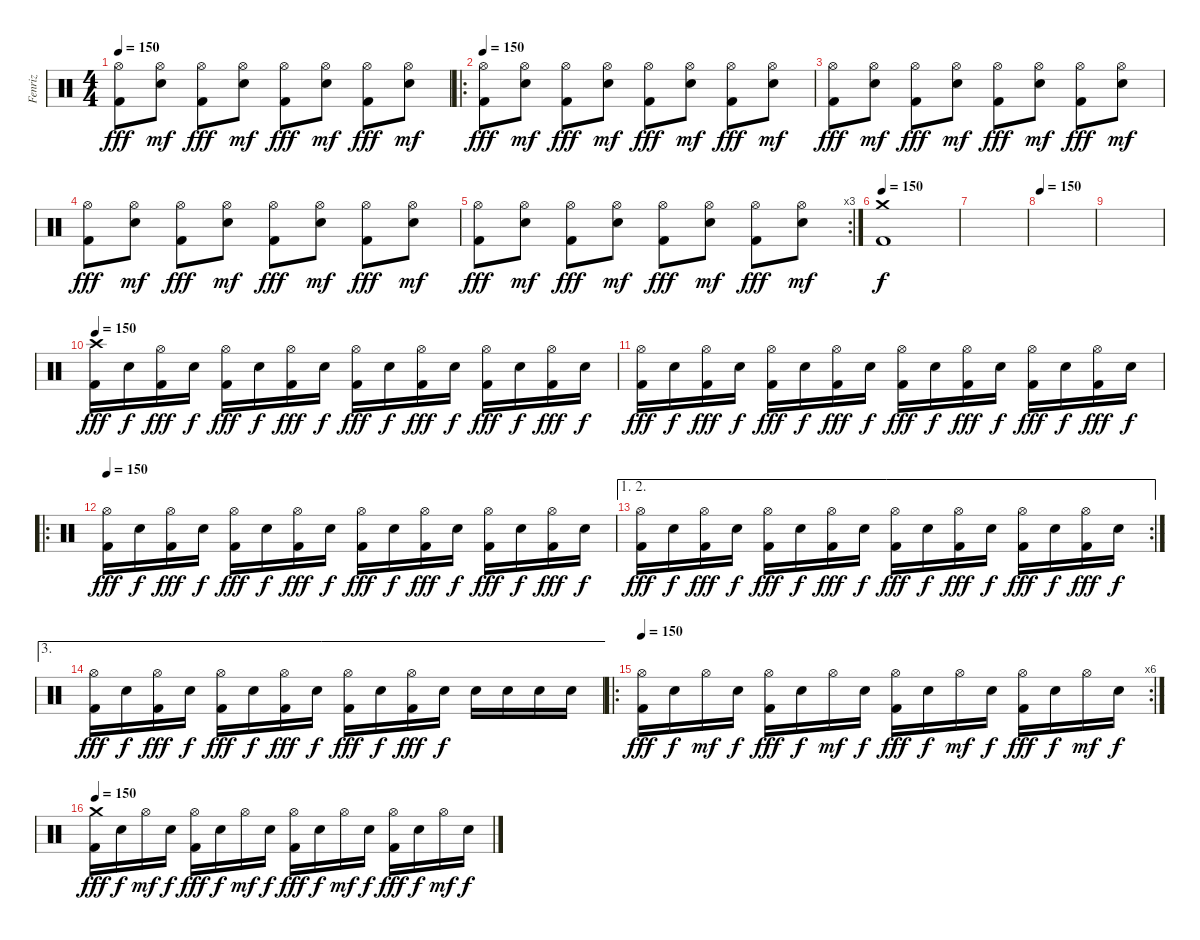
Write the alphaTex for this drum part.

\track ("Fenriz" "Fenriz") {instrument percussion}
\staff {score}
\articulation defaults
\ts (4 4)
\tempo 150
\clef neutral
\ks c
("Hi-Hat (open)" "Kick (hit) 2").8{dy fff} ("Hi-Hat (open)" "Electric Snare (hit)").8{dy mf} ("Hi-Hat (open)" "Kick (hit) 2").8{dy fff} ("Hi-Hat (open)" "Electric Snare (hit)").8{dy mf} ("Hi-Hat (open)" "Kick (hit) 2").8{dy fff} ("Hi-Hat (open)" "Electric Snare (hit)").8{dy mf} ("Hi-Hat (open)" "Kick (hit) 2").8{dy fff} ("Hi-Hat (open)" "Electric Snare (hit)").8{dy mf} |
\ro
\tempo 150
("Hi-Hat (open)" "Kick (hit) 2").8{dy fff} ("Hi-Hat (open)" "Electric Snare (hit)").8{dy mf} ("Hi-Hat (open)" "Kick (hit) 2").8{dy fff} ("Hi-Hat (open)" "Electric Snare (hit)").8{dy mf} ("Hi-Hat (open)" "Kick (hit) 2").8{dy fff} ("Hi-Hat (open)" "Electric Snare (hit)").8{dy mf} ("Hi-Hat (open)" "Kick (hit) 2").8{dy fff} ("Hi-Hat (open)" "Electric Snare (hit)").8{dy mf} |
("Hi-Hat (open)" "Kick (hit) 2").8{dy fff} ("Hi-Hat (open)" "Electric Snare (hit)").8{dy mf} ("Hi-Hat (open)" "Kick (hit) 2").8{dy fff} ("Hi-Hat (open)" "Electric Snare (hit)").8{dy mf} ("Hi-Hat (open)" "Kick (hit) 2").8{dy fff} ("Hi-Hat (open)" "Electric Snare (hit)").8{dy mf} ("Hi-Hat (open)" "Kick (hit) 2").8{dy fff} ("Hi-Hat (open)" "Electric Snare (hit)").8{dy mf} |
("Hi-Hat (open)" "Kick (hit) 2").8{dy fff} ("Hi-Hat (open)" "Electric Snare (hit)").8{dy mf} ("Hi-Hat (open)" "Kick (hit) 2").8{dy fff} ("Hi-Hat (open)" "Electric Snare (hit)").8{dy mf} ("Hi-Hat (open)" "Kick (hit) 2").8{dy fff} ("Hi-Hat (open)" "Electric Snare (hit)").8{dy mf} ("Hi-Hat (open)" "Kick (hit) 2").8{dy fff} ("Hi-Hat (open)" "Electric Snare (hit)").8{dy mf} |
\rc 3
("Hi-Hat (open)" "Kick (hit) 2").8{dy fff} ("Hi-Hat (open)" "Electric Snare (hit)").8{dy mf} ("Hi-Hat (open)" "Kick (hit) 2").8{dy fff} ("Hi-Hat (open)" "Electric Snare (hit)").8{dy mf} ("Hi-Hat (open)" "Kick (hit) 2").8{dy fff} ("Hi-Hat (open)" "Electric Snare (hit)").8{dy mf} ("Hi-Hat (open)" "Kick (hit) 2").8{dy fff} ("Hi-Hat (open)" "Electric Snare (hit)").8{dy mf} |
\tempo 150
("Crash medium (hit)" "Kick (hit) 2").1{dy f} |
|
\tempo 150
|
|
\tempo 150
("Crash high (hit)" "Kick (hit) 2").16{dy fff} "Electric Snare (hit)".16{dy f} ("Hi-Hat (open)" "Kick (hit) 2").16{dy fff} "Electric Snare (hit)".16{dy f} ("Hi-Hat (open)" "Kick (hit) 2").16{dy fff} "Electric Snare (hit)".16{dy f} ("Hi-Hat (open)" "Kick (hit) 2").16{dy fff} "Electric Snare (hit)".16{dy f} ("Hi-Hat (open)" "Kick (hit) 2").16{dy fff} "Electric Snare (hit)".16{dy f} ("Hi-Hat (open)" "Kick (hit) 2").16{dy fff} "Electric Snare (hit)".16{dy f} ("Hi-Hat (open)" "Kick (hit) 2").16{dy fff} "Electric Snare (hit)".16{dy f} ("Hi-Hat (open)" "Kick (hit) 2").16{dy fff} "Electric Snare (hit)".16{dy f} |
("Hi-Hat (open)" "Kick (hit) 2").16{dy fff} "Electric Snare (hit)".16{dy f} ("Hi-Hat (open)" "Kick (hit) 2").16{dy fff} "Electric Snare (hit)".16{dy f} ("Hi-Hat (open)" "Kick (hit) 2").16{dy fff} "Electric Snare (hit)".16{dy f} ("Hi-Hat (open)" "Kick (hit) 2").16{dy fff} "Electric Snare (hit)".16{dy f} ("Hi-Hat (open)" "Kick (hit) 2").16{dy fff} "Electric Snare (hit)".16{dy f} ("Hi-Hat (open)" "Kick (hit) 2").16{dy fff} "Electric Snare (hit)".16{dy f} ("Hi-Hat (open)" "Kick (hit) 2").16{dy fff} "Electric Snare (hit)".16{dy f} ("Hi-Hat (open)" "Kick (hit) 2").16{dy fff} "Electric Snare (hit)".16{dy f} |
\ro
\tempo 150
("Hi-Hat (open)" "Kick (hit) 2").16{dy fff} "Electric Snare (hit)".16{dy f} ("Hi-Hat (open)" "Kick (hit) 2").16{dy fff} "Electric Snare (hit)".16{dy f} ("Hi-Hat (open)" "Kick (hit) 2").16{dy fff} "Electric Snare (hit)".16{dy f} ("Hi-Hat (open)" "Kick (hit) 2").16{dy fff} "Electric Snare (hit)".16{dy f} ("Hi-Hat (open)" "Kick (hit) 2").16{dy fff} "Electric Snare (hit)".16{dy f} ("Hi-Hat (open)" "Kick (hit) 2").16{dy fff} "Electric Snare (hit)".16{dy f} ("Hi-Hat (open)" "Kick (hit) 2").16{dy fff} "Electric Snare (hit)".16{dy f} ("Hi-Hat (open)" "Kick (hit) 2").16{dy fff} "Electric Snare (hit)".16{dy f} |
\ae (1 2)
\rc 2
("Hi-Hat (open)" "Kick (hit) 2").16{dy fff} "Electric Snare (hit)".16{dy f} ("Hi-Hat (open)" "Kick (hit) 2").16{dy fff} "Electric Snare (hit)".16{dy f} ("Hi-Hat (open)" "Kick (hit) 2").16{dy fff} "Electric Snare (hit)".16{dy f} ("Hi-Hat (open)" "Kick (hit) 2").16{dy fff} "Electric Snare (hit)".16{dy f} ("Hi-Hat (open)" "Kick (hit) 2").16{dy fff} "Electric Snare (hit)".16{dy f} ("Hi-Hat (open)" "Kick (hit) 2").16{dy fff} "Electric Snare (hit)".16{dy f} ("Hi-Hat (open)" "Kick (hit) 2").16{dy fff} "Electric Snare (hit)".16{dy f} ("Hi-Hat (open)" "Kick (hit) 2").16{dy fff} "Electric Snare (hit)".16{dy f} |
\ae 3
("Hi-Hat (open)" "Kick (hit) 2").16{dy fff} "Electric Snare (hit)".16{dy f} ("Hi-Hat (open)" "Kick (hit) 2").16{dy fff} "Electric Snare (hit)".16{dy f} ("Hi-Hat (open)" "Kick (hit) 2").16{dy fff} "Electric Snare (hit)".16{dy f} ("Hi-Hat (open)" "Kick (hit) 2").16{dy fff} "Electric Snare (hit)".16{dy f} ("Hi-Hat (open)" "Kick (hit) 2").16{dy fff} "Electric Snare (hit)".16{dy f} ("Hi-Hat (open)" "Kick (hit) 2").16{dy fff} "Electric Snare (hit)".16{dy f} "Electric Snare (hit)".16 "Electric Snare (hit)".16 "Electric Snare (hit)".16 "Electric Snare (hit)".16 |
\ro
\rc 6
\tempo 150
("Hi-Hat (open)" "Kick (hit) 2").16{dy fff} "Electric Snare (hit)".16{dy f} "Hi-Hat (open)".16{dy mf} "Electric Snare (hit)".16{dy f} ("Hi-Hat (open)" "Kick (hit) 2").16{dy fff} "Electric Snare (hit)".16{dy f} "Hi-Hat (open)".16{dy mf} "Electric Snare (hit)".16{dy f} ("Hi-Hat (open)" "Kick (hit) 2").16{dy fff} "Electric Snare (hit)".16{dy f} "Hi-Hat (open)".16{dy mf} "Electric Snare (hit)".16{dy f} ("Hi-Hat (open)" "Kick (hit) 2").16{dy fff} "Electric Snare (hit)".16{dy f} "Hi-Hat (open)".16{dy mf} "Electric Snare (hit)".16{dy f} |
\tempo 150
("Crash medium (hit)" "Kick (hit) 2").16{dy fff} "Electric Snare (hit)".16{dy f} "Hi-Hat (open)".16{dy mf} "Electric Snare (hit)".16{dy f} ("Hi-Hat (open)" "Kick (hit) 2").16{dy fff} "Electric Snare (hit)".16{dy f} "Hi-Hat (open)".16{dy mf} "Electric Snare (hit)".16{dy f} ("Hi-Hat (open)" "Kick (hit) 2").16{dy fff} "Electric Snare (hit)".16{dy f} "Hi-Hat (open)".16{dy mf} "Electric Snare (hit)".16{dy f} ("Hi-Hat (open)" "Kick (hit) 2").16{dy fff} "Electric Snare (hit)".16{dy f} "Hi-Hat (open)".16{dy mf} "Electric Snare (hit)".16{dy f}
